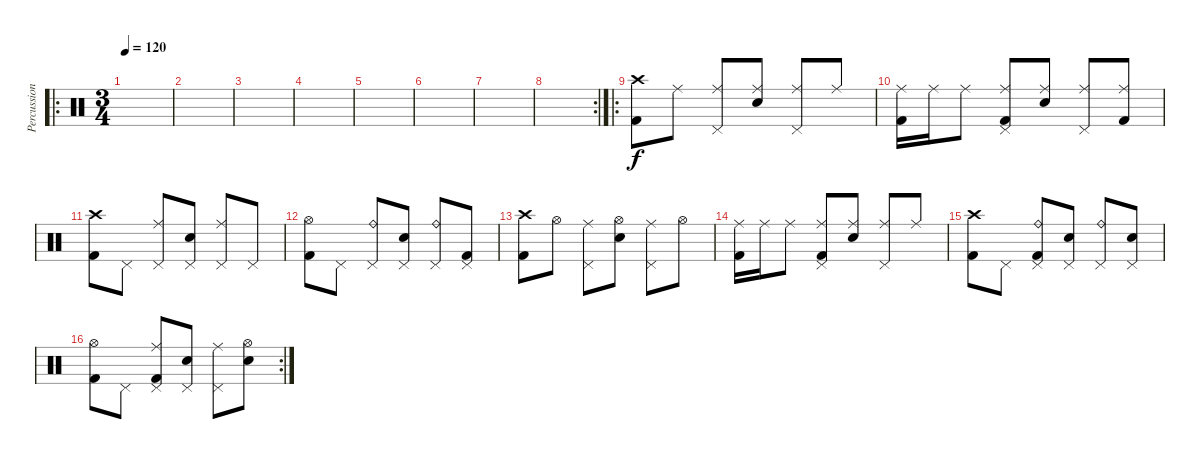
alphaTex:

\track ("Percussion" "Percussion") {instrument percussion}
\staff {score}
\articulation defaults
\ro
\ts (3 4)
\tempo 120
\clef neutral
\ks c
|
|
|
|
|
|
|
\rc 2
|
\ro
("Kick (hit) 2" "Crash high (hit)").8 "Ride (middle)".8 ("Ride (middle)" "Pedal Hi-Hat (hit)").8 ("Electric Snare (hit)" "Ride (middle)").8 ("Ride (middle)" "Pedal Hi-Hat (hit)").8 "Ride (middle)".8 |
("Kick (hit) 2" "Ride (middle)").16 "Ride (middle)".16 "Ride (middle)".8 ("Kick (hit) 2" "Ride (middle)" "Pedal Hi-Hat (hit)").8 ("Ride (middle)" "Electric Snare (hit)").8 ("Ride (middle)" "Pedal Hi-Hat (hit)").8 ("Kick (hit) 2" "Ride (middle)").8 |
("Kick (hit) 2" "Crash high (hit)").8 "Pedal Hi-Hat (hit)".8 ("Pedal Hi-Hat (hit)" "Ride (middle)").8 ("Electric Snare (hit)" "Pedal Hi-Hat (hit)").8 ("Pedal Hi-Hat (hit)" "Ride (middle)").8 "Pedal Hi-Hat (hit)".8 |
("Kick (hit) 2" "Hi-Hat (open)").8 "Pedal Hi-Hat (hit)".8 ("Pedal Hi-Hat (hit)" "Ride (bell)").8 ("Electric Snare (hit)" "Pedal Hi-Hat (hit)").8 ("Pedal Hi-Hat (hit)" "Ride (bell)").8 ("Kick (hit) 2" "Pedal Hi-Hat (hit)").8 |
("Kick (hit) 2" "Crash high (hit)").8 "Hi-Hat (open)".8 ("Ride (middle)" "Pedal Hi-Hat (hit)").8 ("Electric Snare (hit)" "Hi-Hat (open)").8 ("Ride (middle)" "Pedal Hi-Hat (hit)").8 "Hi-Hat (open)".8 |
("Kick (hit) 2" "Ride (middle)").16 "Ride (middle)".16 "Ride (middle)".8 ("Kick (hit) 2" "Ride (middle)" "Pedal Hi-Hat (hit)").8 ("Ride (middle)" "Electric Snare (hit)").8 ("Ride (middle)" "Pedal Hi-Hat (hit)").8 "Ride (middle)".8 |
("Kick (hit) 2" "Crash high (hit)").8 "Pedal Hi-Hat (hit)".8 ("Kick (hit) 2" "Pedal Hi-Hat (hit)" "Ride (bell)").8 ("Electric Snare (hit)" "Pedal Hi-Hat (hit)").8 ("Pedal Hi-Hat (hit)" "Ride (bell)").8 ("Electric Snare (hit)" "Pedal Hi-Hat (hit)").8 |
\rc 2
("Kick (hit) 2" "Hi-Hat (open)").8 "Pedal Hi-Hat (hit)".8 ("Kick (hit) 2" "Pedal Hi-Hat (hit)" "Ride (middle)").8 ("Electric Snare (hit)" "Pedal Hi-Hat (hit)").8 ("Pedal Hi-Hat (hit)" "Ride (middle)").8 ("Electric Snare (hit)" "Hi-Hat (open)").8
